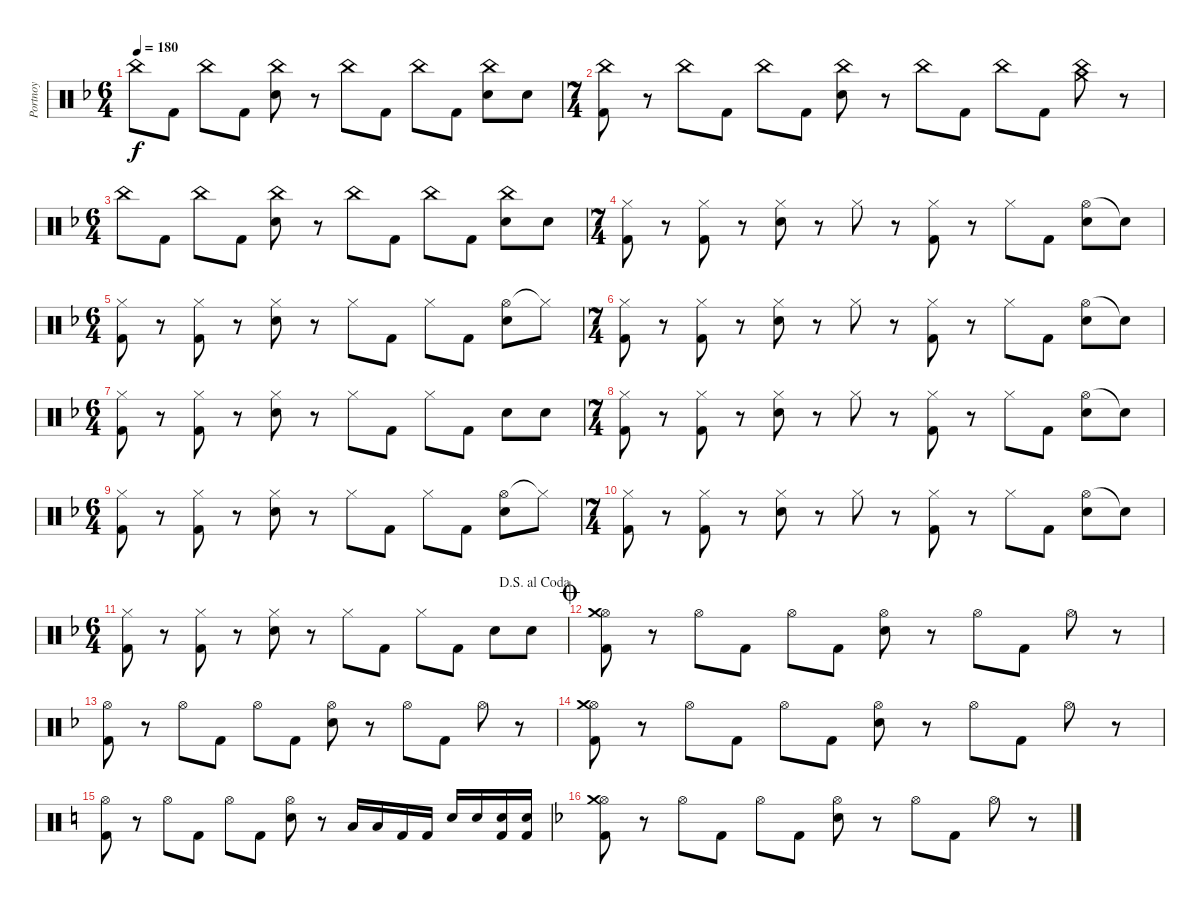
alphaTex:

\track ("Portnoy" "Portnoy") {instrument percussion}
\staff {score}
\articulation defaults
\ts (6 4)
\tempo 180
\clef neutral
\ks f "China (hit)".8{dy f} "Kick (hit) 2".8 "China (hit)".8 "Kick (hit) 2".8
("China (hit)" "Electric Snare (hit)").8 r.8 "China (hit)".8 "Kick (hit) 2".8 "China (hit)".8 "Kick (hit) 2".8 ("China (hit)" "Electric Snare (hit)").8 "Electric Snare (hit)".8 |
\ts (7 4)
("China (hit)" "Kick (hit) 2").8 r.8 "China (hit)".8 "Kick (hit) 2".8 "China (hit)".8 "Kick (hit) 2".8 ("China (hit)" "Electric Snare (hit)").8 r.8 "China (hit)".8 "Kick (hit) 2".8 "China (hit)".8 "Kick (hit) 2".8 ("China (hit)" "Crash medium (hit)").8 r.8 |
\ts (6 4)
"China (hit)".8 "Kick (hit) 2".8 "China (hit)".8 "Kick (hit) 2".8 ("China (hit)" "Electric Snare (hit)").8 r.8 "China (hit)".8 "Kick (hit) 2".8 "China (hit)".8 "Kick (hit) 2".8 ("China (hit)" "Electric Snare (hit)").8 "Electric Snare (hit)".8 |
\ts (7 4)
("Hi-Hat (closed)" "Kick (hit) 2").8 r.8 ("Hi-Hat (closed)" "Kick (hit) 2").8 r.8 ("Hi-Hat (closed)" "Electric Snare (hit)").8 r.8 "Hi-Hat (closed)".8 r.8 ("Hi-Hat (closed)" "Kick (hit) 2").8 r.8 "Hi-Hat (closed)".8 "Kick (hit) 2".8 ("Hi-Hat (open)" "Electric Snare (hit)").8 "Snare (hit)"{t}.8 |
\ts (6 4)
("Hi-Hat (closed)" "Kick (hit) 2").8 r.8 ("Hi-Hat (closed)" "Kick (hit) 2").8 r.8 ("Hi-Hat (closed)" "Electric Snare (hit)").8 r.8 "Hi-Hat (closed)".8 "Kick (hit) 2".8 "Hi-Hat (closed)".8 "Kick (hit) 2".8 ("Hi-Hat (open)" "Electric Snare (hit)").8 "Hi-Hat (closed)"{t}.8 |
\ts (7 4)
("Hi-Hat (closed)" "Kick (hit) 2").8 r.8 ("Hi-Hat (closed)" "Kick (hit) 2").8 r.8 ("Hi-Hat (closed)" "Electric Snare (hit)").8 r.8 "Hi-Hat (closed)".8 r.8 ("Hi-Hat (closed)" "Kick (hit) 2").8 r.8 "Hi-Hat (closed)".8 "Kick (hit) 2".8 ("Hi-Hat (open)" "Electric Snare (hit)").8 "Snare (hit)"{t}.8 |
\ts (6 4)
("Hi-Hat (closed)" "Kick (hit) 2").8 r.8 ("Hi-Hat (closed)" "Kick (hit) 2").8 r.8 ("Hi-Hat (closed)" "Electric Snare (hit)").8 r.8 "Hi-Hat (closed)".8 "Kick (hit) 2".8 "Hi-Hat (closed)".8 "Kick (hit) 2".8 "Electric Snare (hit)".8 "Electric Snare (hit)".8 |
\ts (7 4)
("Hi-Hat (closed)" "Kick (hit) 2").8 r.8 ("Hi-Hat (closed)" "Kick (hit) 2").8 r.8 ("Hi-Hat (closed)" "Electric Snare (hit)").8 r.8 "Hi-Hat (closed)".8 r.8 ("Hi-Hat (closed)" "Kick (hit) 2").8 r.8 "Hi-Hat (closed)".8 "Kick (hit) 2".8 ("Hi-Hat (open)" "Electric Snare (hit)").8 "Snare (hit)"{t}.8 |
\ts (6 4)
("Hi-Hat (closed)" "Kick (hit) 2").8 r.8 ("Hi-Hat (closed)" "Kick (hit) 2").8 r.8 ("Hi-Hat (closed)" "Electric Snare (hit)").8 r.8 "Hi-Hat (closed)".8 "Kick (hit) 2".8 "Hi-Hat (closed)".8 "Kick (hit) 2".8 ("Hi-Hat (open)" "Electric Snare (hit)").8 "Hi-Hat (closed)"{t}.8 |
\ts (7 4)
("Hi-Hat (closed)" "Kick (hit) 2").8 r.8 ("Hi-Hat (closed)" "Kick (hit) 2").8 r.8 ("Hi-Hat (closed)" "Electric Snare (hit)").8 r.8 "Hi-Hat (closed)".8 r.8 ("Hi-Hat (closed)" "Kick (hit) 2").8 r.8 "Hi-Hat (closed)".8 "Kick (hit) 2".8 ("Hi-Hat (open)" "Electric Snare (hit)").8 "Snare (hit)"{t}.8 |
\ts (6 4)
\jump dalsegnoalcoda
("Hi-Hat (closed)" "Kick (hit) 2").8 r.8 ("Hi-Hat (closed)" "Kick (hit) 2").8 r.8 ("Hi-Hat (closed)" "Electric Snare (hit)").8 r.8 "Hi-Hat (closed)".8 "Kick (hit) 2".8 "Hi-Hat (closed)".8 "Kick (hit) 2".8 "Electric Snare (hit)".8 "Electric Snare (hit)".8 |
\jump coda
("Hi-Hat (open)" "Crash medium (hit)" "Kick (hit) 2").8 r.8 "Hi-Hat (open)".8 "Kick (hit) 2".8 "Hi-Hat (open)".8 "Kick (hit) 2".8 ("Hi-Hat (open)" "Electric Snare (hit)").8 r.8 "Hi-Hat (open)".8 "Kick (hit) 2".8 "Hi-Hat (open)".8 r.8 |
("Hi-Hat (open)" "Kick (hit) 2").8 r.8 "Hi-Hat (open)".8 "Kick (hit) 2".8 "Hi-Hat (open)".8 "Kick (hit) 2".8 ("Hi-Hat (open)" "Electric Snare (hit)").8 r.8 "Hi-Hat (open)".8 "Kick (hit) 2".8 "Hi-Hat (open)".8 r.8 |
("Hi-Hat (open)" "Crash medium (hit)" "Kick (hit) 2").8 r.8 "Hi-Hat (open)".8 "Kick (hit) 2".8 "Hi-Hat (open)".8 "Kick (hit) 2".8 ("Hi-Hat (open)" "Electric Snare (hit)").8 r.8 "Hi-Hat (open)".8 "Kick (hit) 2".8 "Hi-Hat (open)".8 r.8 |
\ks c
("Hi-Hat (open)" "Kick (hit) 2").8 r.8 "Hi-Hat (open)".8 "Kick (hit) 2".8 "Hi-Hat (open)".8 "Kick (hit) 2".8 ("Hi-Hat (open)" "Electric Snare (hit)").8 r.8 "Low Tom (hit)".16 "Low Tom (hit)".16 "Kick (hit) 2".16 "Kick (hit) 2".16 "Electric Snare (hit)".16 "Electric Snare (hit)".16 ("Electric Snare (hit)" "Kick (hit) 2").16 ("Electric Snare (hit)" "Kick (hit) 2").16 |
\ks f
("Hi-Hat (open)" "Crash medium (hit)" "Kick (hit) 2").8 r.8 "Hi-Hat (open)".8 "Kick (hit) 2".8 "Hi-Hat (open)".8 "Kick (hit) 2".8 ("Hi-Hat (open)" "Electric Snare (hit)").8 r.8 "Hi-Hat (open)".8 "Kick (hit) 2".8 "Hi-Hat (open)".8 r.8
